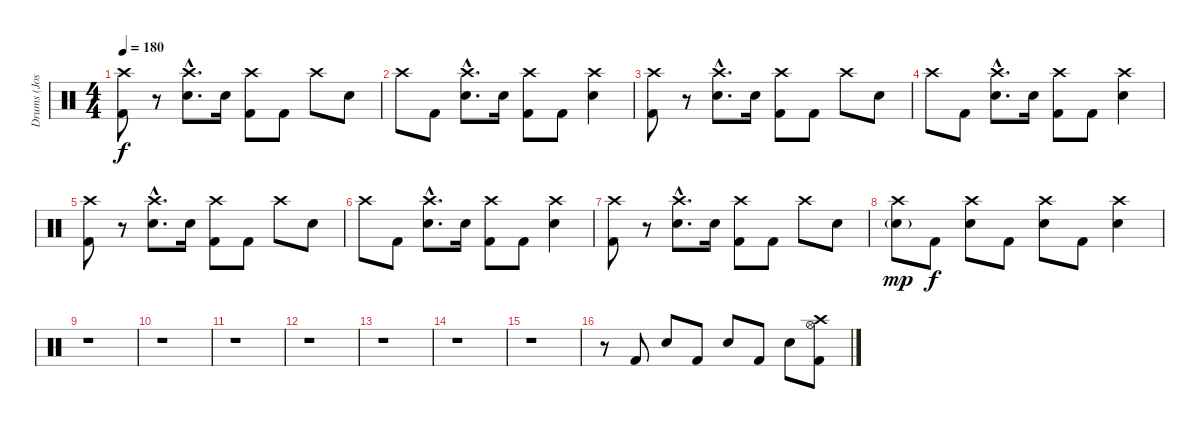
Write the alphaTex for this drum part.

\track ("Drums (Jose Pasilas II)" "Drums (Jos") {instrument percussion}
\staff {score}
\articulation defaults
\ts (4 4)
\tempo 180
\clef neutral
\ks c
("Kick (hit) 2" "Crash high (hit)").8{dy f} r.8 ("Snare (hit) 2"{hac} "Crash high (hit)"{hac}).8{d} "Snare (hit) 2".16 ("Crash high (hit)" "Kick (hit) 2").8 "Kick (hit) 2".8 "Crash high (hit)".8 "Snare (hit) 2".8 |
"Crash high (hit)".8 "Kick (hit) 2".8 ("Crash high (hit)"{hac} "Snare (hit) 2"{hac}).8{d} "Snare (hit) 2".16 ("Kick (hit) 2" "Crash high (hit)").8 "Kick (hit) 2".8 ("Snare (hit) 2" "Crash high (hit)").4 |
("Kick (hit) 2" "Crash high (hit)").8 r.8 ("Snare (hit) 2"{hac} "Crash high (hit)"{hac}).8{d} "Snare (hit) 2".16 ("Crash high (hit)" "Kick (hit) 2").8 "Kick (hit) 2".8 "Crash high (hit)".8 "Snare (hit) 2".8 |
"Crash high (hit)".8 "Kick (hit) 2".8 ("Crash high (hit)"{hac} "Snare (hit) 2"{hac}).8{d} "Snare (hit) 2".16 ("Kick (hit) 2" "Crash high (hit)").8 "Kick (hit) 2".8 ("Snare (hit) 2" "Crash high (hit)").4 |
("Kick (hit) 2" "Crash high (hit)").8 r.8 ("Snare (hit) 2"{hac} "Crash high (hit)"{hac}).8{d} "Snare (hit) 2".16 ("Crash high (hit)" "Kick (hit) 2").8 "Kick (hit) 2".8 "Crash high (hit)".8 "Snare (hit) 2".8 |
"Crash high (hit)".8 "Kick (hit) 2".8 ("Crash high (hit)"{hac} "Snare (hit) 2"{hac}).8{d} "Snare (hit) 2".16 ("Kick (hit) 2" "Crash high (hit)").8 "Kick (hit) 2".8 ("Snare (hit) 2" "Crash high (hit)").4 |
("Kick (hit) 2" "Crash high (hit)").8 r.8 ("Snare (hit) 2"{hac} "Crash high (hit)"{hac}).8{d} "Snare (hit) 2".16 ("Crash high (hit)" "Kick (hit) 2").8 "Kick (hit) 2".8 "Crash high (hit)".8 "Snare (hit) 2".8 |
("Snare (hit) 2"{g} "Crash high (hit)").8{dy mp} "Kick (hit) 2".8{dy f} ("Crash high (hit)" "Snare (hit) 2").8 "Kick (hit) 2".8 ("Snare (hit) 2" "Crash high (hit)").8 "Kick (hit) 2".8 ("Snare (hit) 2" "Crash high (hit)").4 |
r.1 |
r.1 |
r.1 |
r.1 |
r.1 |
r.1 |
r.1 |
r.8 "Kick (hit) 2".8 "Snare (hit) 2".8 "Kick (hit) 2".8 "Snare (hit) 2".8 "Kick (hit) 2".8 "Snare (hit) 2".8 ("Hi-Hat (open)" "Kick (hit) 2" "Crash high (hit)").8
